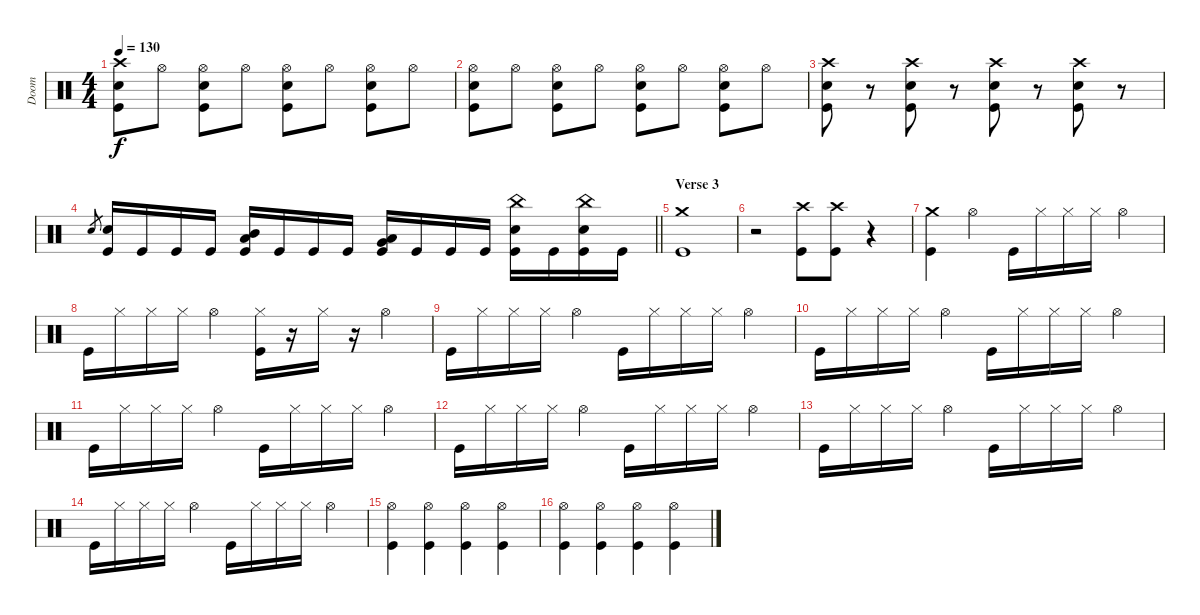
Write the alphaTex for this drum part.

\track ("Doom" "Doom") {instrument percussion}
\staff {score}
\articulation defaults
\ts (4 4)
\tempo 130
\clef neutral
\ks c
("Crash high (hit)" "Electric Snare (hit)" "Kick (hit)").8{dy f} "Hi-Hat (open)".8 ("Hi-Hat (open)" "Electric Snare (hit)" "Kick (hit)").8 "Hi-Hat (open)".8 ("Hi-Hat (open)" "Electric Snare (hit)" "Kick (hit)").8 "Hi-Hat (open)".8 ("Hi-Hat (open)" "Electric Snare (hit)" "Kick (hit)").8 "Hi-Hat (open)".8 |
("Hi-Hat (open)" "Electric Snare (hit)" "Kick (hit)").8 "Hi-Hat (open)".8 ("Hi-Hat (open)" "Electric Snare (hit)" "Kick (hit)").8 "Hi-Hat (open)".8 ("Hi-Hat (open)" "Electric Snare (hit)" "Kick (hit)").8 "Hi-Hat (open)".8 ("Hi-Hat (open)" "Electric Snare (hit)" "Kick (hit)").8 "Hi-Hat (open)".8 |
("Crash high (hit)" "Electric Snare (hit)" "Kick (hit)").8 r.8 ("Crash high (hit)" "Electric Snare (hit)" "Kick (hit)").8 r.8 ("Crash high (hit)" "Electric Snare (hit)" "Kick (hit)").8 r.8 ("Crash high (hit)" "Electric Snare (hit)" "Kick (hit)").8 r.8 |
\barLineRight lightlight "Electric Snare (hit)".8{gr}
("Electric Snare (hit)" "Kick (hit)").16 "Kick (hit)".16 "Kick (hit)".16 "Kick (hit)".16 ("Low Tom (hit)" "Mid Tom (hit)" "Kick (hit)").16 "Kick (hit)".16 "Kick (hit)".16 "Kick (hit)".16 ("Very Low Tom (hit)" "Low Tom (hit)" "Kick (hit)").16 "Kick (hit)".16 "Kick (hit)".16 "Kick (hit)".16 ("China (hit)" "Electric Snare (hit)" "Kick (hit)").16 "Kick (hit)".16 ("China (hit)" "Electric Snare (hit)" "Kick (hit)").16 "Kick (hit)".16 |
\section ("" "Verse 3")
("Crash medium (hit)" "Kick (hit)").1 |
r.2 ("Crash high (hit)" "Kick (hit)").8 ("Crash high (hit)" "Kick (hit)").8 r.4 |
("Crash medium (hit)" "Kick (hit)").4 "Hi-Hat (open)".4 "Kick (hit)".16 "Hi-Hat (closed)".16 "Hi-Hat (closed)".16 "Hi-Hat (closed)".16 "Hi-Hat (open)".4 |
"Kick (hit)".16 "Hi-Hat (closed)".16 "Hi-Hat (closed)".16 "Hi-Hat (closed)".16 "Hi-Hat (open)".4 ("Hi-Hat (closed)" "Kick (hit)").16 r.16 "Hi-Hat (closed)".16 r.16 "Hi-Hat (open)".4 |
"Kick (hit)".16 "Hi-Hat (closed)".16 "Hi-Hat (closed)".16 "Hi-Hat (closed)".16 "Hi-Hat (open)".4 "Kick (hit)".16 "Hi-Hat (closed)".16 "Hi-Hat (closed)".16 "Hi-Hat (closed)".16 "Hi-Hat (open)".4 |
"Kick (hit)".16 "Hi-Hat (closed)".16 "Hi-Hat (closed)".16 "Hi-Hat (closed)".16 "Hi-Hat (open)".4 "Kick (hit)".16 "Hi-Hat (closed)".16 "Hi-Hat (closed)".16 "Hi-Hat (closed)".16 "Hi-Hat (open)".4 |
"Kick (hit)".16 "Hi-Hat (closed)".16 "Hi-Hat (closed)".16 "Hi-Hat (closed)".16 "Hi-Hat (open)".4 "Kick (hit)".16 "Hi-Hat (closed)".16 "Hi-Hat (closed)".16 "Hi-Hat (closed)".16 "Hi-Hat (open)".4 |
"Kick (hit)".16 "Hi-Hat (closed)".16 "Hi-Hat (closed)".16 "Hi-Hat (closed)".16 "Hi-Hat (open)".4 "Kick (hit)".16 "Hi-Hat (closed)".16 "Hi-Hat (closed)".16 "Hi-Hat (closed)".16 "Hi-Hat (open)".4 |
"Kick (hit)".16 "Hi-Hat (closed)".16 "Hi-Hat (closed)".16 "Hi-Hat (closed)".16 "Hi-Hat (open)".4 "Kick (hit)".16 "Hi-Hat (closed)".16 "Hi-Hat (closed)".16 "Hi-Hat (closed)".16 "Hi-Hat (open)".4 |
"Kick (hit)".16 "Hi-Hat (closed)".16 "Hi-Hat (closed)".16 "Hi-Hat (closed)".16 "Hi-Hat (open)".4 "Kick (hit)".16 "Hi-Hat (closed)".16 "Hi-Hat (closed)".16 "Hi-Hat (closed)".16 "Hi-Hat (open)".4 |
("Hi-Hat (open)" "Kick (hit)").4 ("Hi-Hat (open)" "Kick (hit)").4 ("Hi-Hat (open)" "Kick (hit)").4 ("Hi-Hat (open)" "Kick (hit)").4 |
("Hi-Hat (open)" "Kick (hit)").4 ("Hi-Hat (open)" "Kick (hit)").4 ("Hi-Hat (open)" "Kick (hit)").4 ("Hi-Hat (open)" "Kick (hit)").4
